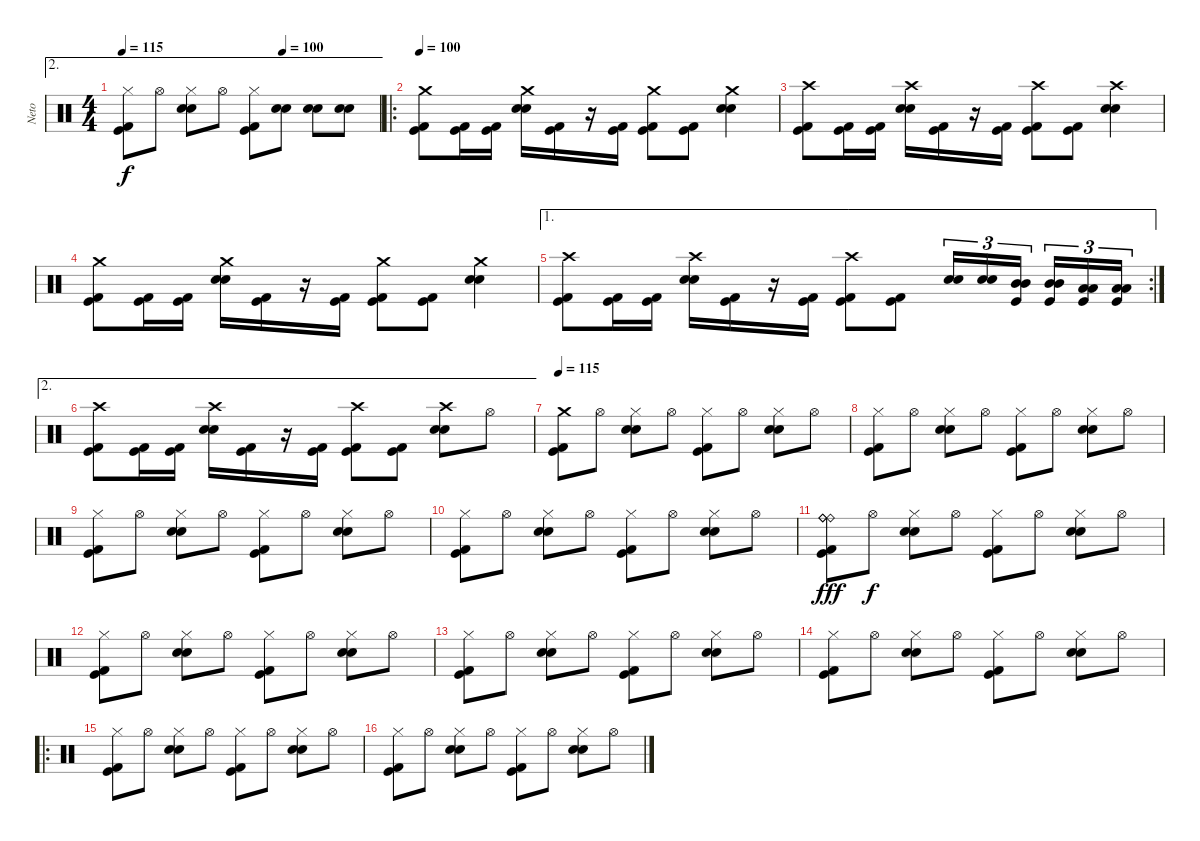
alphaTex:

\track ("Neto" "Neto") {instrument percussion}
\staff {score}
\articulation defaults
\ae 2
\ts (4 4)
\tempo 115
\tempo (100 0.625)
\clef neutral
\ks c
("Hi-Hat (closed)" "Kick (hit)" "Kick (hit) 2").8{dy f} "Hi-Hat (open)".8 ("Hi-Hat (closed)" "Snare (hit) 2" "Snare (hit) 2").8 "Hi-Hat (open)".8 ("Hi-Hat (closed)" "Kick (hit)" "Kick (hit) 2").8 ("Snare (hit) 2" "Snare (hit) 2").8 ("Snare (hit) 2" "Snare (hit) 2").8 ("Snare (hit) 2" "Snare (hit) 2").8 |
\ro
\tempo 100
("Crash medium (hit)" "Kick (hit)" "Kick (hit) 2").8 ("Kick (hit)" "Kick (hit) 2").16 ("Kick (hit)" "Kick (hit) 2").16 ("Crash medium (hit)" "Snare (hit) 2" "Snare (hit) 2").16 ("Kick (hit)" "Kick (hit) 2").16 r.16 ("Kick (hit)" "Kick (hit) 2").16 ("Crash medium (hit)" "Kick (hit)" "Kick (hit) 2").8 ("Kick (hit)" "Kick (hit) 2").8 ("Crash medium (hit)" "Snare (hit) 2" "Snare (hit) 2").4 |
("Crash high (hit)" "Kick (hit)" "Kick (hit) 2").8 ("Kick (hit)" "Kick (hit) 2").16 ("Kick (hit)" "Kick (hit) 2").16 ("Crash high (hit)" "Snare (hit) 2" "Snare (hit) 2").16 ("Kick (hit)" "Kick (hit) 2").16 r.16 ("Kick (hit)" "Kick (hit) 2").16 ("Crash high (hit)" "Kick (hit)" "Kick (hit) 2").8 ("Kick (hit)" "Kick (hit) 2").8 ("Crash high (hit)" "Snare (hit) 2" "Snare (hit) 2").4 |
("Crash medium (hit)" "Kick (hit)" "Kick (hit) 2").8 ("Kick (hit)" "Kick (hit) 2").16 ("Kick (hit)" "Kick (hit) 2").16 ("Crash medium (hit)" "Snare (hit) 2" "Snare (hit) 2").16 ("Kick (hit)" "Kick (hit) 2").16 r.16 ("Kick (hit)" "Kick (hit) 2").16 ("Crash medium (hit)" "Kick (hit)" "Kick (hit) 2").8 ("Kick (hit)" "Kick (hit) 2").8 ("Crash medium (hit)" "Snare (hit) 2" "Snare (hit) 2").4 |
\ae 1
\rc 2
("Crash high (hit)" "Kick (hit)" "Kick (hit) 2").8 ("Kick (hit)" "Kick (hit) 2").16 ("Kick (hit)" "Kick (hit) 2").16 ("Crash high (hit)" "Snare (hit) 2" "Snare (hit) 2").16 ("Kick (hit)" "Kick (hit) 2").16 r.16 ("Kick (hit)" "Kick (hit) 2").16 ("Crash high (hit)" "Kick (hit)" "Kick (hit) 2").8 ("Kick (hit)" "Kick (hit) 2").8 ("Snare (hit) 2" "Snare (hit) 2").16{tu (3 2)} ("Snare (hit) 2" "Snare (hit) 2").16{tu (3 2)} ("Mid Tom (hit)" "Mid Tom (hit)" "Kick (hit)").16{tu (3 2)} ("Mid Tom (hit)" "Mid Tom (hit)" "Kick (hit)").16{tu (3 2)} ("Low Tom (hit)" "Low Tom (hit)" "Kick (hit)").16{tu (3 2)} ("Low Tom (hit)" "Low Tom (hit)" "Kick (hit)").16{tu (3 2)} |
\ae 2
("Crash high (hit)" "Kick (hit)" "Kick (hit) 2").8 ("Kick (hit)" "Kick (hit) 2").16 ("Kick (hit)" "Kick (hit) 2").16 ("Crash high (hit)" "Snare (hit) 2" "Snare (hit) 2").16 ("Kick (hit)" "Kick (hit) 2").16 r.16 ("Kick (hit)" "Kick (hit) 2").16 ("Crash high (hit)" "Kick (hit)" "Kick (hit) 2").8 ("Kick (hit)" "Kick (hit) 2").8 ("Crash high (hit)" "Snare (hit) 2" "Snare (hit) 2").8 "Hi-Hat (open)".8 |
\tempo 115
("Crash medium (hit)" "Kick (hit)" "Kick (hit) 2").8 "Hi-Hat (open)".8 ("Hi-Hat (closed)" "Snare (hit) 2" "Snare (hit) 2").8 "Hi-Hat (open)".8 ("Hi-Hat (closed)" "Kick (hit)" "Kick (hit) 2").8 "Hi-Hat (open)".8 ("Hi-Hat (closed)" "Snare (hit) 2" "Snare (hit) 2").8 "Hi-Hat (open)".8 |
("Hi-Hat (closed)" "Kick (hit)" "Kick (hit) 2").8 "Hi-Hat (open)".8 ("Hi-Hat (closed)" "Snare (hit) 2" "Snare (hit) 2").8 "Hi-Hat (open)".8 ("Hi-Hat (closed)" "Kick (hit)" "Kick (hit) 2").8 "Hi-Hat (open)".8 ("Hi-Hat (closed)" "Snare (hit) 2" "Snare (hit) 2").8 "Hi-Hat (open)".8 |
("Hi-Hat (closed)" "Kick (hit)" "Kick (hit) 2").8 "Hi-Hat (open)".8 ("Hi-Hat (closed)" "Snare (hit) 2" "Snare (hit) 2").8 "Hi-Hat (open)".8 ("Hi-Hat (closed)" "Kick (hit)" "Kick (hit) 2").8 "Hi-Hat (open)".8 ("Hi-Hat (closed)" "Snare (hit) 2" "Snare (hit) 2").8 "Hi-Hat (open)".8 |
("Hi-Hat (closed)" "Kick (hit)" "Kick (hit) 2").8 "Hi-Hat (open)".8 ("Hi-Hat (closed)" "Snare (hit) 2" "Snare (hit) 2").8 "Hi-Hat (open)".8 ("Hi-Hat (closed)" "Kick (hit)" "Kick (hit) 2").8 "Hi-Hat (open)".8 ("Hi-Hat (closed)" "Snare (hit) 2" "Snare (hit) 2").8 "Hi-Hat (open)".8 |
("Ride (bell)" "Ride (bell)" "Ride (bell)" "Kick (hit)" "Kick (hit) 2").8{dy fff} "Hi-Hat (open)".8{dy f} ("Hi-Hat (closed)" "Snare (hit) 2" "Snare (hit) 2").8 "Hi-Hat (open)".8 ("Hi-Hat (closed)" "Kick (hit)" "Kick (hit) 2").8 "Hi-Hat (open)".8 ("Hi-Hat (closed)" "Snare (hit) 2" "Snare (hit) 2").8 "Hi-Hat (open)".8 |
("Hi-Hat (closed)" "Kick (hit)" "Kick (hit) 2").8 "Hi-Hat (open)".8 ("Hi-Hat (closed)" "Snare (hit) 2" "Snare (hit) 2").8 "Hi-Hat (open)".8 ("Hi-Hat (closed)" "Kick (hit)" "Kick (hit) 2").8 "Hi-Hat (open)".8 ("Hi-Hat (closed)" "Snare (hit) 2" "Snare (hit) 2").8 "Hi-Hat (open)".8 |
("Hi-Hat (closed)" "Kick (hit)" "Kick (hit) 2").8 "Hi-Hat (open)".8 ("Hi-Hat (closed)" "Snare (hit) 2" "Snare (hit) 2").8 "Hi-Hat (open)".8 ("Hi-Hat (closed)" "Kick (hit)" "Kick (hit) 2").8 "Hi-Hat (open)".8 ("Hi-Hat (closed)" "Snare (hit) 2" "Snare (hit) 2").8 "Hi-Hat (open)".8 |
("Hi-Hat (closed)" "Kick (hit)" "Kick (hit) 2").8 "Hi-Hat (open)".8 ("Hi-Hat (closed)" "Snare (hit) 2" "Snare (hit) 2").8 "Hi-Hat (open)".8 ("Hi-Hat (closed)" "Kick (hit)" "Kick (hit) 2").8 "Hi-Hat (open)".8 ("Hi-Hat (closed)" "Snare (hit) 2" "Snare (hit) 2").8 "Hi-Hat (open)".8 |
\ro
("Hi-Hat (closed)" "Kick (hit)" "Kick (hit) 2").8 "Hi-Hat (open)".8 ("Hi-Hat (closed)" "Snare (hit) 2" "Snare (hit) 2").8 "Hi-Hat (open)".8 ("Hi-Hat (closed)" "Kick (hit)" "Kick (hit) 2").8 "Hi-Hat (open)".8 ("Hi-Hat (closed)" "Snare (hit) 2" "Snare (hit) 2").8 "Hi-Hat (open)".8 |
("Hi-Hat (closed)" "Kick (hit)" "Kick (hit) 2").8 "Hi-Hat (open)".8 ("Hi-Hat (closed)" "Snare (hit) 2" "Snare (hit) 2").8 "Hi-Hat (open)".8 ("Hi-Hat (closed)" "Kick (hit)" "Kick (hit) 2").8 "Hi-Hat (open)".8 ("Hi-Hat (closed)" "Snare (hit) 2" "Snare (hit) 2").8 "Hi-Hat (open)".8
